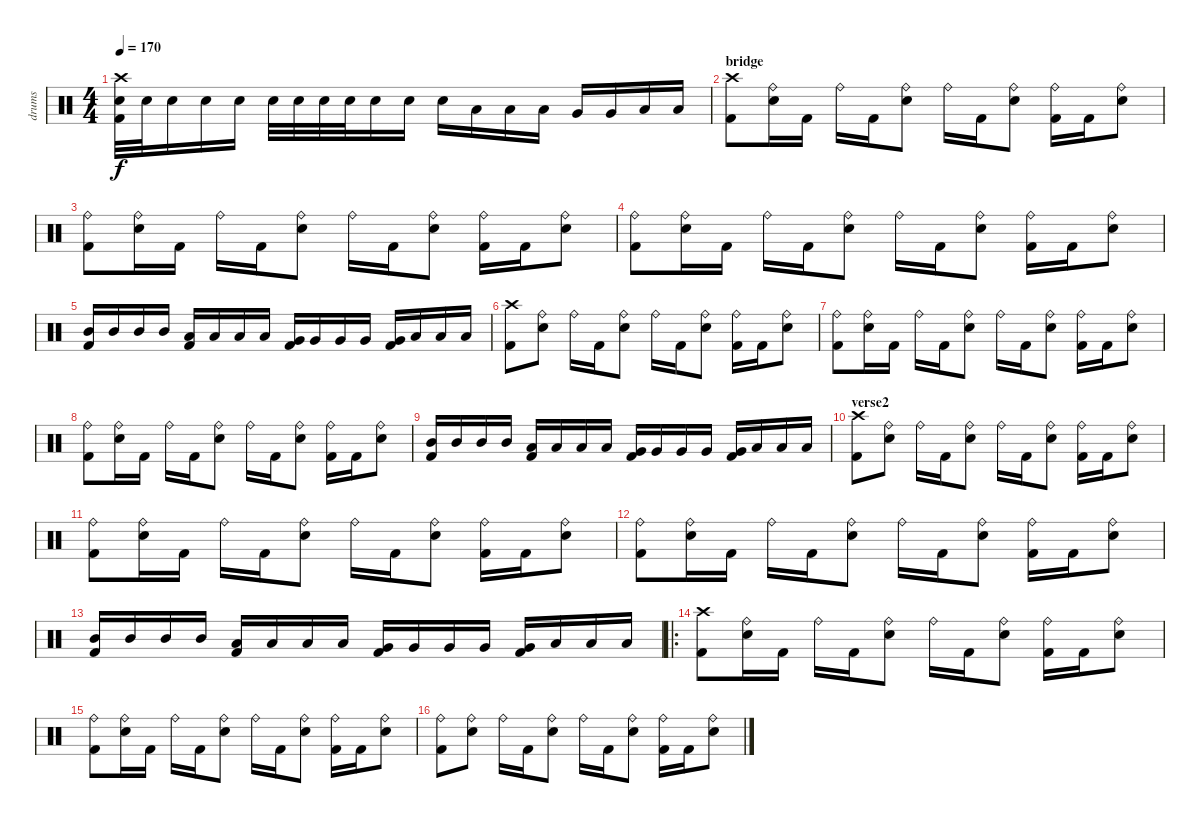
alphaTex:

\track ("drums" "drums") {instrument percussion}
\staff {score}
\articulation defaults
\ts (4 4)
\tempo 170
\clef neutral
\ks c
("Crash high (hit)" "Electric Snare (hit)" "Kick (hit) 2").32{dy f} "Electric Snare (hit)".32 "Electric Snare (hit)".16 "Electric Snare (hit)".16 "Electric Snare (hit)".16 "Electric Snare (hit)".32 "Electric Snare (hit)".32 "Electric Snare (hit)".32 "Electric Snare (hit)".32 "Electric Snare (hit)".16 "Electric Snare (hit)".16 "Electric Snare (hit)".16 "Low Tom (hit)".16 "Low Tom (hit)".16 "Low Tom (hit)".16 "Very Low Tom (hit)".16 "Very Low Tom (hit)".16 "Low Floor Tom (hit)".16 "Low Floor Tom (hit)".16 |
\section ("" "bridge")
("Crash high (hit)" "Kick (hit) 2").8 ("Ride (bell)" "Electric Snare (hit)").16 "Kick (hit) 2".16 "Ride (bell)".16 "Kick (hit) 2".16 ("Ride (bell)" "Electric Snare (hit)").8 "Ride (bell)".16 "Kick (hit) 2".16 ("Ride (bell)" "Electric Snare (hit)").8 ("Ride (bell)" "Kick (hit) 2").16 "Kick (hit) 2".16 ("Ride (bell)" "Electric Snare (hit)").8 |
("Ride (bell)" "Kick (hit) 2").8 ("Ride (bell)" "Electric Snare (hit)").16 "Kick (hit) 2".16 "Ride (bell)".16 "Kick (hit) 2".16 ("Ride (bell)" "Electric Snare (hit)").8 "Ride (bell)".16 "Kick (hit) 2".16 ("Ride (bell)" "Electric Snare (hit)").8 ("Ride (bell)" "Kick (hit) 2").16 "Kick (hit) 2".16 ("Ride (bell)" "Electric Snare (hit)").8 |
("Ride (bell)" "Kick (hit) 2").8 ("Ride (bell)" "Electric Snare (hit)").16 "Kick (hit) 2".16 "Ride (bell)".16 "Kick (hit) 2".16 ("Ride (bell)" "Electric Snare (hit)").8 "Ride (bell)".16 "Kick (hit) 2".16 ("Ride (bell)" "Electric Snare (hit)").8 ("Ride (bell)" "Kick (hit) 2").16 "Kick (hit) 2".16 ("Ride (bell)" "Electric Snare (hit)").8 |
("Mid Tom (hit)" "Kick (hit) 2").16 "Mid Tom (hit)".16 "Mid Tom (hit)".16 "Mid Tom (hit)".16 ("Low Tom (hit)" "Kick (hit) 2").16 "Low Tom (hit)".16 "Low Tom (hit)".16 "Low Tom (hit)".16 ("Very Low Tom (hit)" "Kick (hit) 2").16 "Very Low Tom (hit)".16 "Very Low Tom (hit)".16 "Very Low Tom (hit)".16 ("Very Low Tom (hit)" "Kick (hit) 2").16 "Low Floor Tom (hit)".16 "Low Floor Tom (hit)".16 "Low Floor Tom (hit)".16 |
("Crash high (hit)" "Kick (hit) 2").8 ("Ride (bell)" "Electric Snare (hit)").8 "Ride (bell)".16 "Kick (hit) 2".16 ("Ride (bell)" "Electric Snare (hit)").8 "Ride (bell)".16 "Kick (hit) 2".16 ("Ride (bell)" "Electric Snare (hit)").8 ("Ride (bell)" "Kick (hit) 2").16 "Kick (hit) 2".16 ("Ride (bell)" "Electric Snare (hit)").8 |
("Ride (bell)" "Kick (hit) 2").8 ("Ride (bell)" "Electric Snare (hit)").16 "Kick (hit) 2".16 "Ride (bell)".16 "Kick (hit) 2".16 ("Ride (bell)" "Electric Snare (hit)").8 "Ride (bell)".16 "Kick (hit) 2".16 ("Ride (bell)" "Electric Snare (hit)").8 ("Ride (bell)" "Kick (hit) 2").16 "Kick (hit) 2".16 ("Ride (bell)" "Electric Snare (hit)").8 |
("Ride (bell)" "Kick (hit) 2").8 ("Ride (bell)" "Electric Snare (hit)").16 "Kick (hit) 2".16 "Ride (bell)".16 "Kick (hit) 2".16 ("Ride (bell)" "Electric Snare (hit)").8 "Ride (bell)".16 "Kick (hit) 2".16 ("Ride (bell)" "Electric Snare (hit)").8 ("Ride (bell)" "Kick (hit) 2").16 "Kick (hit) 2".16 ("Ride (bell)" "Electric Snare (hit)").8 |
("Mid Tom (hit)" "Kick (hit) 2").16 "Mid Tom (hit)".16 "Mid Tom (hit)".16 "Mid Tom (hit)".16 ("Low Tom (hit)" "Kick (hit) 2").16 "Low Tom (hit)".16 "Low Tom (hit)".16 "Low Tom (hit)".16 ("Very Low Tom (hit)" "Kick (hit) 2").16 "Very Low Tom (hit)".16 "Very Low Tom (hit)".16 "Very Low Tom (hit)".16 ("Very Low Tom (hit)" "Kick (hit) 2").16 "Low Floor Tom (hit)".16 "Low Floor Tom (hit)".16 "Low Floor Tom (hit)".16 |
\section ("" "verse2")
("Crash high (hit)" "Kick (hit) 2").8 ("Ride (bell)" "Electric Snare (hit)").8 "Ride (bell)".16 "Kick (hit) 2".16 ("Ride (bell)" "Electric Snare (hit)").8 "Ride (bell)".16 "Kick (hit) 2".16 ("Ride (bell)" "Electric Snare (hit)").8 ("Ride (bell)" "Kick (hit) 2").16 "Kick (hit) 2".16 ("Ride (bell)" "Electric Snare (hit)").8 |
("Ride (bell)" "Kick (hit) 2").8 ("Ride (bell)" "Electric Snare (hit)").16 "Kick (hit) 2".16 "Ride (bell)".16 "Kick (hit) 2".16 ("Ride (bell)" "Electric Snare (hit)").8 "Ride (bell)".16 "Kick (hit) 2".16 ("Ride (bell)" "Electric Snare (hit)").8 ("Ride (bell)" "Kick (hit) 2").16 "Kick (hit) 2".16 ("Ride (bell)" "Electric Snare (hit)").8 |
("Ride (bell)" "Kick (hit) 2").8 ("Ride (bell)" "Electric Snare (hit)").16 "Kick (hit) 2".16 "Ride (bell)".16 "Kick (hit) 2".16 ("Ride (bell)" "Electric Snare (hit)").8 "Ride (bell)".16 "Kick (hit) 2".16 ("Ride (bell)" "Electric Snare (hit)").8 ("Ride (bell)" "Kick (hit) 2").16 "Kick (hit) 2".16 ("Ride (bell)" "Electric Snare (hit)").8 |
("Mid Tom (hit)" "Kick (hit) 2").16 "Mid Tom (hit)".16 "Mid Tom (hit)".16 "Mid Tom (hit)".16 ("Low Tom (hit)" "Kick (hit) 2").16 "Low Tom (hit)".16 "Low Tom (hit)".16 "Low Tom (hit)".16 ("Very Low Tom (hit)" "Kick (hit) 2").16 "Very Low Tom (hit)".16 "Very Low Tom (hit)".16 "Very Low Tom (hit)".16 ("Very Low Tom (hit)" "Kick (hit) 2").16 "Low Floor Tom (hit)".16 "Low Floor Tom (hit)".16 "Low Floor Tom (hit)".16 |
\ro
("Crash high (hit)" "Kick (hit) 2").8 ("Ride (bell)" "Electric Snare (hit)").16 "Kick (hit) 2".16 "Ride (bell)".16 "Kick (hit) 2".16 ("Ride (bell)" "Electric Snare (hit)").8 "Ride (bell)".16 "Kick (hit) 2".16 ("Ride (bell)" "Electric Snare (hit)").8 ("Ride (bell)" "Kick (hit) 2").16 "Kick (hit) 2".16 ("Ride (bell)" "Electric Snare (hit)").8 |
("Ride (bell)" "Kick (hit) 2").8 ("Ride (bell)" "Electric Snare (hit)").16 "Kick (hit) 2".16 "Ride (bell)".16 "Kick (hit) 2".16 ("Ride (bell)" "Electric Snare (hit)").8 "Ride (bell)".16 "Kick (hit) 2".16 ("Ride (bell)" "Electric Snare (hit)").8 ("Ride (bell)" "Kick (hit) 2").16 "Kick (hit) 2".16 ("Ride (bell)" "Electric Snare (hit)").8 |
("Ride (bell)" "Kick (hit) 2").8 ("Ride (bell)" "Electric Snare (hit)").8 "Ride (bell)".16 "Kick (hit) 2".16 ("Ride (bell)" "Electric Snare (hit)").8 "Ride (bell)".16 "Kick (hit) 2".16 ("Ride (bell)" "Electric Snare (hit)").8 ("Ride (bell)" "Kick (hit) 2").16 "Kick (hit) 2".16 ("Ride (bell)" "Electric Snare (hit)").8
